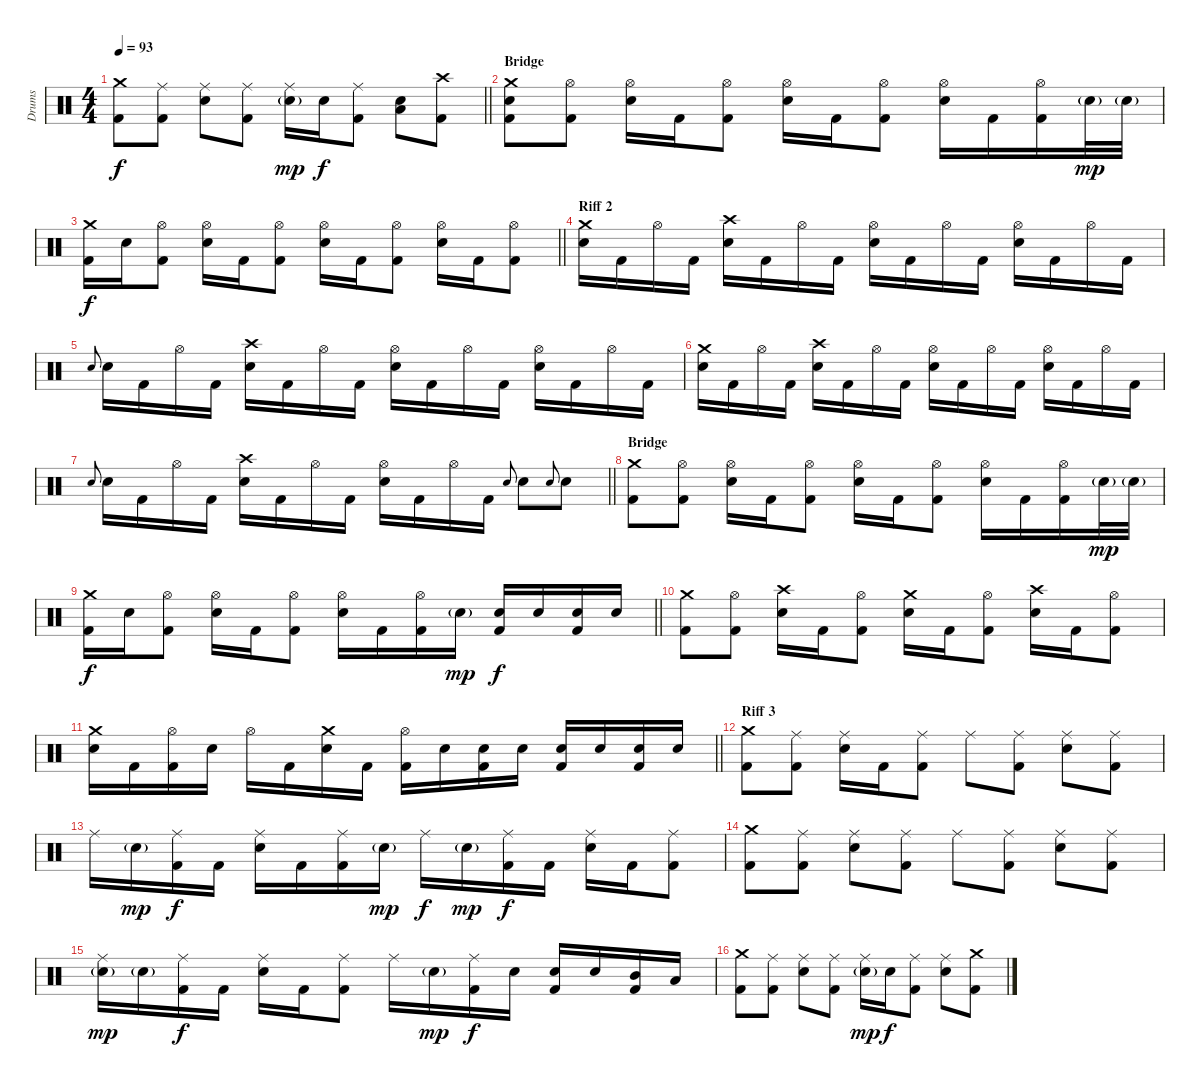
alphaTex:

\track ("Drums" "Drums") {instrument percussion}
\staff {score}
\articulation defaults
\ts (4 4)
\tempo 93
\clef neutral
\barLineRight lightlight
\ks c
("Crash medium (hit)" "Kick (hit) 2").8{dy f} ("Ride (middle)" "Kick (hit) 2").8 ("Electric Snare (hit)" "Ride (middle)").8 ("Ride (middle)" "Kick (hit) 2").8 ("Electric Snare (hit)"{g} "Ride (middle)").16{dy mp} "Electric Snare (hit)".16{dy f} ("Kick (hit) 2" "Ride (middle)").8 ("Electric Snare (hit)" "Low Floor Tom (hit)").8 ("Kick (hit) 2" "Crash high (hit)").8 |
\section ("" "Bridge")
("Kick (hit) 2" "Electric Snare (hit)" "Crash medium (hit)").8 ("Hi-Hat (open)" "Kick (hit) 2").8 ("Hi-Hat (open)" "Electric Snare (hit)").16 "Kick (hit) 2".16 ("Kick (hit) 2" "Hi-Hat (open)").8 ("Hi-Hat (open)" "Electric Snare (hit)").16 "Kick (hit) 2".16 ("Kick (hit) 2" "Hi-Hat (open)").8 ("Hi-Hat (open)" "Electric Snare (hit)").16 "Kick (hit) 2".16 ("Kick (hit) 2" "Hi-Hat (open)").16 "Electric Snare (hit)"{g}.32{dy mp} "Electric Snare (hit)"{g}.32 |
\barLineRight lightlight
("Crash medium (hit)" "Kick (hit) 2").16{dy f} "Electric Snare (hit)".16 ("Hi-Hat (open)" "Kick (hit) 2").8 ("Electric Snare (hit)" "Hi-Hat (open)").16 "Kick (hit) 2".16 ("Kick (hit) 2" "Hi-Hat (open)").8 ("Electric Snare (hit)" "Hi-Hat (open)").16 "Kick (hit) 2".16 ("Kick (hit) 2" "Hi-Hat (open)").8 ("Electric Snare (hit)" "Hi-Hat (open)").16 "Kick (hit) 2".16 ("Kick (hit) 2" "Hi-Hat (open)").8 |
\section ("" "Riff 2")
("Electric Snare (hit)" "Crash medium (hit)").16 "Kick (hit) 2".16 "Hi-Hat (open)".16 "Kick (hit) 2".16 ("Crash high (hit)" "Electric Snare (hit)").16 "Kick (hit) 2".16 "Hi-Hat (open)".16 "Kick (hit) 2".16 ("Hi-Hat (open)" "Electric Snare (hit)").16 "Kick (hit) 2".16 "Hi-Hat (open)".16 "Kick (hit) 2".16 ("Hi-Hat (open)" "Electric Snare (hit)").16 "Kick (hit) 2".16 "Hi-Hat (open)".16 "Kick (hit) 2".16 |
"Electric Snare (hit)".8{gr onbeat} "Electric Snare (hit)".16 "Kick (hit) 2".16 "Hi-Hat (open)".16 "Kick (hit) 2".16 ("Crash high (hit)" "Electric Snare (hit)").16 "Kick (hit) 2".16 "Hi-Hat (open)".16 "Kick (hit) 2".16 ("Hi-Hat (open)" "Electric Snare (hit)").16 "Kick (hit) 2".16 "Hi-Hat (open)".16 "Kick (hit) 2".16 ("Hi-Hat (open)" "Electric Snare (hit)").16 "Kick (hit) 2".16 "Hi-Hat (open)".16 "Kick (hit) 2".16 |
("Electric Snare (hit)" "Crash medium (hit)").16 "Kick (hit) 2".16 "Hi-Hat (open)".16 "Kick (hit) 2".16 ("Crash high (hit)" "Electric Snare (hit)").16 "Kick (hit) 2".16 "Hi-Hat (open)".16 "Kick (hit) 2".16 ("Hi-Hat (open)" "Electric Snare (hit)").16 "Kick (hit) 2".16 "Hi-Hat (open)".16 "Kick (hit) 2".16 ("Hi-Hat (open)" "Electric Snare (hit)").16 "Kick (hit) 2".16 "Hi-Hat (open)".16 "Kick (hit) 2".16 |
\barLineRight lightlight "Electric Snare (hit)".8{gr onbeat} "Electric Snare (hit)".16 "Kick (hit) 2".16 "Hi-Hat (open)".16 "Kick (hit) 2".16
("Crash high (hit)" "Electric Snare (hit)").16 "Kick (hit) 2".16 "Hi-Hat (open)".16 "Kick (hit) 2".16 ("Hi-Hat (open)" "Electric Snare (hit)").16 "Kick (hit) 2".16 "Hi-Hat (open)".16 "Kick (hit) 2".16 "Electric Snare (hit)".8{gr onbeat} "Electric Snare (hit)".8 "Electric Snare (hit)".8{gr onbeat} "Electric Snare (hit)".8 |
\section ("" "Bridge")
("Kick (hit) 2" "Crash medium (hit)").8 ("Hi-Hat (open)" "Kick (hit) 2").8 ("Hi-Hat (open)" "Electric Snare (hit)").16 "Kick (hit) 2".16 ("Kick (hit) 2" "Hi-Hat (open)").8 ("Hi-Hat (open)" "Electric Snare (hit)").16 "Kick (hit) 2".16 ("Kick (hit) 2" "Hi-Hat (open)").8 ("Hi-Hat (open)" "Electric Snare (hit)").16 "Kick (hit) 2".16 ("Kick (hit) 2" "Hi-Hat (open)").16 "Electric Snare (hit)"{g}.32{dy mp} "Electric Snare (hit)"{g}.32 |
\barLineRight lightlight
("Crash medium (hit)" "Kick (hit) 2").16{dy f} "Electric Snare (hit)".16 ("Hi-Hat (open)" "Kick (hit) 2").8 ("Electric Snare (hit)" "Hi-Hat (open)").16 "Kick (hit) 2".16 ("Kick (hit) 2" "Hi-Hat (open)").8 ("Electric Snare (hit)" "Hi-Hat (open)").16 "Kick (hit) 2".16 ("Kick (hit) 2" "Hi-Hat (open)").16 "Electric Snare (hit)"{g}.16{dy mp} ("Kick (hit) 2" "Electric Snare (hit)").16{dy f} "Electric Snare (hit)".16 ("Kick (hit) 2" "Electric Snare (hit)").16 "Electric Snare (hit)".16 |
("Kick (hit) 2" "Crash medium (hit)").8 ("Hi-Hat (open)" "Kick (hit) 2").8 ("Crash high (hit)" "Electric Snare (hit)").16 "Kick (hit) 2".16 ("Kick (hit) 2" "Hi-Hat (open)").8 ("Crash medium (hit)" "Electric Snare (hit)").16 "Kick (hit) 2".16 ("Kick (hit) 2" "Hi-Hat (open)").8 ("Crash high (hit)" "Electric Snare (hit)").16 "Kick (hit) 2".16 ("Kick (hit) 2" "Hi-Hat (open)").8 |
\barLineRight lightlight
("Crash medium (hit)" "Electric Snare (hit)").16 "Kick (hit) 2".16 ("Hi-Hat (open)" "Kick (hit) 2").16 "Electric Snare (hit)".16 "Hi-Hat (open)".16 "Kick (hit) 2".16 ("Electric Snare (hit)" "Crash medium (hit)").16 "Kick (hit) 2".16 ("Kick (hit) 2" "Hi-Hat (open)").16 "Electric Snare (hit)".16 ("Electric Snare (hit)" "Kick (hit) 2").16 "Electric Snare (hit)".16 ("Electric Snare (hit)" "Kick (hit) 2").16 "Electric Snare (hit)".16 ("Electric Snare (hit)" "Kick (hit) 2").16 "Electric Snare (hit)".16 |
\section ("" "Riff 3")
("Crash medium (hit)" "Kick (hit) 2").8 ("Ride (middle)" "Kick (hit) 2").8 ("Electric Snare (hit)" "Ride (middle)").16 "Kick (hit) 2".16 ("Ride (middle)" "Kick (hit) 2").8 "Ride (middle)".8 ("Kick (hit) 2" "Ride (middle)").8 ("Electric Snare (hit)" "Ride (middle)").8 ("Kick (hit) 2" "Ride (middle)").8 |
"Ride (middle)".16 "Electric Snare (hit)"{g}.16{dy mp} ("Kick (hit) 2" "Ride (middle)").16{dy f} "Kick (hit) 2".16 ("Electric Snare (hit)" "Ride (middle)").16 "Kick (hit) 2".16 ("Kick (hit) 2" "Ride (middle)").16 "Electric Snare (hit)"{g}.16{dy mp} "Ride (middle)".16{dy f} "Electric Snare (hit)"{g}.16{dy mp} ("Ride (middle)" "Kick (hit) 2").16{dy f} "Kick (hit) 2".16 ("Ride (middle)" "Electric Snare (hit)").16 "Kick (hit) 2".16 ("Kick (hit) 2" "Ride (middle)").8 |
("Crash medium (hit)" "Kick (hit) 2").8 ("Ride (middle)" "Kick (hit) 2").8 ("Electric Snare (hit)" "Ride (middle)").8 ("Ride (middle)" "Kick (hit) 2").8 "Ride (middle)".8 ("Kick (hit) 2" "Ride (middle)").8 ("Electric Snare (hit)" "Ride (middle)").8 ("Kick (hit) 2" "Ride (middle)").8 |
("Electric Snare (hit)"{g} "Ride (middle)").16{dy mp} "Electric Snare (hit)"{g}.16 ("Ride (middle)" "Kick (hit) 2").16{dy f} "Kick (hit) 2".16 ("Electric Snare (hit)" "Ride (middle)").16 "Kick (hit) 2".16 ("Kick (hit) 2" "Ride (middle)").8 "Ride (middle)".16 "Electric Snare (hit)"{g}.16{dy mp} ("Kick (hit) 2" "Ride (middle)").16{dy f} "Electric Snare (hit)".16 ("Electric Snare (hit)" "Kick (hit) 2").16 "Electric Snare (hit)".16 ("Mid Tom (hit)" "Kick (hit) 2").16 "Low Floor Tom (hit)".16 |
("Crash medium (hit)" "Kick (hit) 2").8 ("Ride (middle)" "Kick (hit) 2").8 ("Electric Snare (hit)" "Ride (middle)").8 ("Ride (middle)" "Kick (hit) 2").8 ("Electric Snare (hit)"{g} "Ride (middle)").16{dy mp} "Electric Snare (hit)".16{dy f} ("Kick (hit) 2" "Ride (middle)").8 ("Electric Snare (hit)" "Ride (middle)").8 ("Kick (hit) 2" "Crash medium (hit)").8
